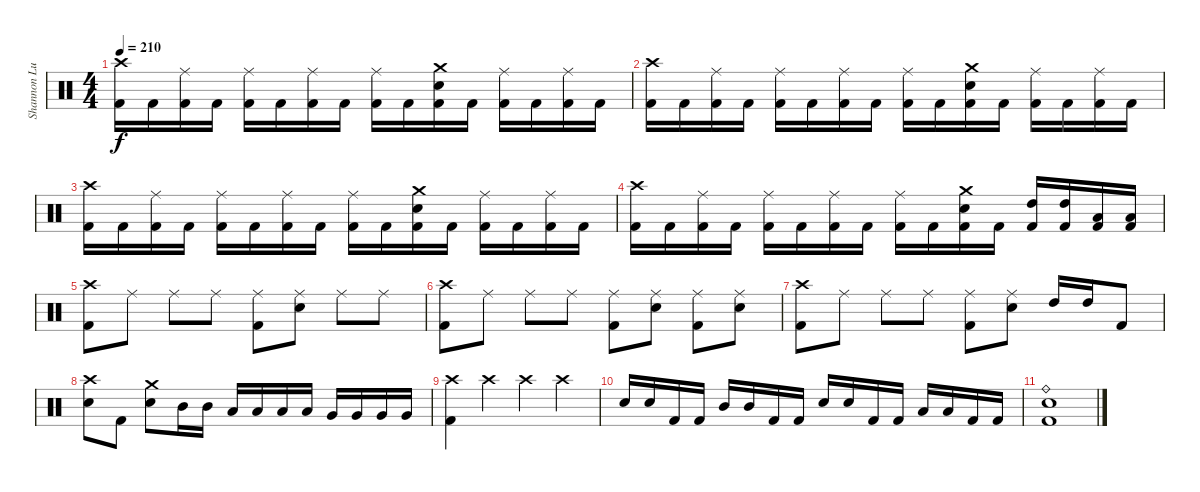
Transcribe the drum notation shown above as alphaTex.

\track ("Shannon Lucas" "Shannon Lu") {instrument percussion}
\staff {score}
\articulation defaults
\ts (4 4)
\tempo 210
\clef neutral
\ks c
("Crash high (hit)" "Kick (hit) 2").16{dy f} "Kick (hit) 2".16 ("Ride (middle)" "Kick (hit) 2").16 "Kick (hit) 2".16 ("Ride (middle)" "Kick (hit) 2").16 "Kick (hit) 2".16 ("Ride (middle)" "Kick (hit) 2").16 "Kick (hit) 2".16 ("Ride (middle)" "Kick (hit) 2").16 "Kick (hit) 2".16 ("Crash medium (hit)" "Electric Snare (hit)" "Kick (hit) 2").16 "Kick (hit) 2".16 ("Ride (middle)" "Kick (hit) 2").16 "Kick (hit) 2".16 ("Ride (middle)" "Kick (hit) 2").16 "Kick (hit) 2".16 |
("Crash high (hit)" "Kick (hit) 2").16 "Kick (hit) 2".16 ("Ride (middle)" "Kick (hit) 2").16 "Kick (hit) 2".16 ("Ride (middle)" "Kick (hit) 2").16 "Kick (hit) 2".16 ("Ride (middle)" "Kick (hit) 2").16 "Kick (hit) 2".16 ("Ride (middle)" "Kick (hit) 2").16 "Kick (hit) 2".16 ("Crash medium (hit)" "Electric Snare (hit)" "Kick (hit) 2").16 "Kick (hit) 2".16 ("Ride (middle)" "Kick (hit) 2").16 "Kick (hit) 2".16 ("Ride (middle)" "Kick (hit) 2").16 "Kick (hit) 2".16 |
("Crash high (hit)" "Kick (hit) 2").16 "Kick (hit) 2".16 ("Ride (middle)" "Kick (hit) 2").16 "Kick (hit) 2".16 ("Ride (middle)" "Kick (hit) 2").16 "Kick (hit) 2".16 ("Ride (middle)" "Kick (hit) 2").16 "Kick (hit) 2".16 ("Ride (middle)" "Kick (hit) 2").16 "Kick (hit) 2".16 ("Crash medium (hit)" "Electric Snare (hit)" "Kick (hit) 2").16 "Kick (hit) 2".16 ("Ride (middle)" "Kick (hit) 2").16 "Kick (hit) 2".16 ("Ride (middle)" "Kick (hit) 2").16 "Kick (hit) 2".16 |
("Crash high (hit)" "Kick (hit) 2").16 "Kick (hit) 2".16 ("Ride (middle)" "Kick (hit) 2").16 "Kick (hit) 2".16 ("Ride (middle)" "Kick (hit) 2").16 "Kick (hit) 2".16 ("Ride (middle)" "Kick (hit) 2").16 "Kick (hit) 2".16 ("Ride (middle)" "Kick (hit) 2").16 "Kick (hit) 2".16 ("Crash medium (hit)" "Electric Snare (hit)" "Kick (hit) 2").16 "Kick (hit) 2".16 ("High Tom (hit)" "Kick (hit) 2").16 ("High Tom (hit)" "Kick (hit) 2").16 ("Low Tom (hit)" "Kick (hit) 2").16 ("Low Tom (hit)" "Kick (hit) 2").16 |
("Crash high (hit)" "Kick (hit) 2").8 "Ride (middle)".8 "Ride (middle)".8 "Ride (middle)".8 ("Ride (middle)" "Kick (hit) 2").8 ("Ride (middle)" "Electric Snare (hit)").8 "Ride (middle)".8 "Ride (middle)".8 |
("Crash high (hit)" "Kick (hit) 2").8 "Ride (middle)".8 "Ride (middle)".8 "Ride (middle)".8 ("Ride (middle)" "Kick (hit) 2").8 ("Ride (middle)" "Electric Snare (hit)").8 ("Ride (middle)" "Kick (hit) 2").8 ("Ride (middle)" "Electric Snare (hit)").8 |
("Crash high (hit)" "Kick (hit) 2").8 "Ride (middle)".8 "Ride (middle)".8 "Ride (middle)".8 ("Ride (middle)" "Kick (hit) 2").8 ("Ride (middle)" "Electric Snare (hit)").8 "High Tom (hit)".16 "High Tom (hit)".16 "Kick (hit) 2".8 |
("Crash high (hit)" "Electric Snare (hit)").8 "Kick (hit) 2".8 ("Crash medium (hit)" "Electric Snare (hit)").8 "Mid Tom (hit)".16 "Mid Tom (hit)".16 "Low Tom (hit)".16 "Low Tom (hit)".16 "Low Tom (hit)".16 "Low Tom (hit)".16 "Very Low Tom (hit)".16 "Very Low Tom (hit)".16 "Very Low Tom (hit)".16 "Very Low Tom (hit)".16 |
("Crash high (hit)" "Kick (hit) 2").4 "Crash high (hit)".4 "Crash high (hit)".4 "Crash high (hit)".4 |
"Electric Snare (hit)".16 "Electric Snare (hit)".16 "Kick (hit) 2".16 "Kick (hit) 2".16 "Mid Tom (hit)".16 "Mid Tom (hit)".16 "Kick (hit) 2".16 "Kick (hit) 2".16 "Electric Snare (hit)".16 "Electric Snare (hit)".16 "Kick (hit) 2".16 "Kick (hit) 2".16 "Low Tom (hit)".16 "Low Tom (hit)".16 "Kick (hit) 2".16 "Kick (hit) 2".16 |
("Ride (bell)" "Electric Snare (hit)" "Kick (hit) 2").1
